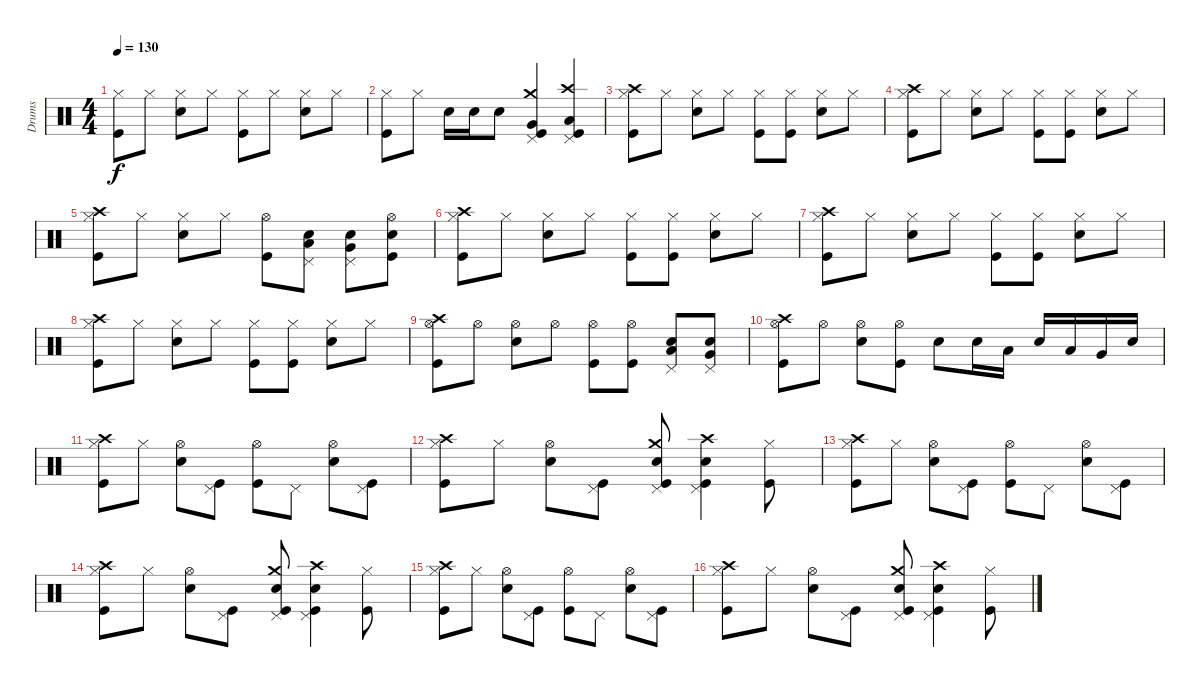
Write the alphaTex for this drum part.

\track ("Drums" "Drums") {instrument percussion}
\staff {score}
\articulation defaults
\ts (4 4)
\tempo 130
\clef neutral
\ks c
("Hi-Hat (closed)" "Kick (hit)").8{dy f} "Hi-Hat (closed)".8 ("Hi-Hat (closed)" "Electric Snare (hit)").8 "Hi-Hat (closed)".8 ("Hi-Hat (closed)" "Kick (hit)").8 "Hi-Hat (closed)".8 ("Hi-Hat (closed)" "Electric Snare (hit)").8 "Hi-Hat (closed)".8 |
("Hi-Hat (closed)" "Kick (hit)").8 "Hi-Hat (closed)".8 "Electric Snare (hit)".16 "Electric Snare (hit)".16 "Electric Snare (hit)".8 ("Crash medium (hit)" "Pedal Hi-Hat (hit)" "Very Low Tom (hit)" "Kick (hit)").4 ("Crash high (hit)" "Pedal Hi-Hat (hit)" "Low Floor Tom (hit)" "Kick (hit)").4 |
("Crash high (hit)" "Hi-Hat (closed)" "Kick (hit)").8{volume 16} "Hi-Hat (closed)".8 ("Hi-Hat (closed)" "Electric Snare (hit)").8 "Hi-Hat (closed)".8 ("Hi-Hat (closed)" "Kick (hit)").8 ("Hi-Hat (closed)" "Kick (hit)").8 ("Hi-Hat (closed)" "Electric Snare (hit)").8 "Hi-Hat (closed)".8 |
("Crash high (hit)" "Hi-Hat (closed)" "Kick (hit)").8 "Hi-Hat (closed)".8 ("Hi-Hat (closed)" "Electric Snare (hit)").8 "Hi-Hat (closed)".8 ("Hi-Hat (closed)" "Kick (hit)").8 ("Hi-Hat (closed)" "Kick (hit)").8 ("Hi-Hat (closed)" "Electric Snare (hit)").8 "Hi-Hat (closed)".8 |
("Crash high (hit)" "Hi-Hat (closed)" "Kick (hit)").8 "Hi-Hat (closed)".8 ("Hi-Hat (closed)" "Electric Snare (hit)").8 "Hi-Hat (closed)".8 ("Hi-Hat (open)" "Kick (hit)").8 ("Pedal Hi-Hat (hit)" "Electric Snare (hit)" "Low Floor Tom (hit)").8 ("Pedal Hi-Hat (hit)" "Electric Snare (hit)" "Very Low Tom (hit)").8 ("Hi-Hat (open)" "Electric Snare (hit)" "Kick (hit)").8 |
("Crash high (hit)" "Hi-Hat (closed)" "Kick (hit)").8 "Hi-Hat (closed)".8 ("Hi-Hat (closed)" "Electric Snare (hit)").8 "Hi-Hat (closed)".8 ("Hi-Hat (closed)" "Kick (hit)").8 ("Hi-Hat (closed)" "Kick (hit)").8 ("Hi-Hat (closed)" "Electric Snare (hit)").8 "Hi-Hat (closed)".8 |
("Crash high (hit)" "Hi-Hat (closed)" "Kick (hit)").8 "Hi-Hat (closed)".8 ("Hi-Hat (closed)" "Electric Snare (hit)").8 "Hi-Hat (closed)".8 ("Hi-Hat (closed)" "Kick (hit)").8 ("Hi-Hat (closed)" "Kick (hit)").8 ("Hi-Hat (closed)" "Electric Snare (hit)").8 "Hi-Hat (closed)".8 |
("Crash high (hit)" "Hi-Hat (closed)" "Kick (hit)").8 "Hi-Hat (closed)".8 ("Hi-Hat (closed)" "Electric Snare (hit)").8 "Hi-Hat (closed)".8 ("Hi-Hat (closed)" "Kick (hit)").8 ("Hi-Hat (closed)" "Kick (hit)").8 ("Hi-Hat (closed)" "Electric Snare (hit)").8 "Hi-Hat (closed)".8 |
("Crash high (hit)" "Hi-Hat (open)" "Kick (hit)").8 "Hi-Hat (open)".8 ("Hi-Hat (open)" "Electric Snare (hit)").8 "Hi-Hat (open)".8 ("Hi-Hat (open)" "Kick (hit)").8 ("Hi-Hat (open)" "Kick (hit)").8 ("Pedal Hi-Hat (hit)" "Electric Snare (hit)" "Low Floor Tom (hit)").8 ("Pedal Hi-Hat (hit)" "Electric Snare (hit)" "Very Low Tom (hit)").8 |
("Crash high (hit)" "Hi-Hat (open)" "Kick (hit)").8 "Hi-Hat (open)".8 ("Hi-Hat (open)" "Electric Snare (hit)").8 ("Hi-Hat (open)" "Kick (hit)").8 "Electric Snare (hit)".8 "Electric Snare (hit)".16 "Low Floor Tom (hit)".16 "Electric Snare (hit)".16 "Low Floor Tom (hit)".16 "Very Low Tom (hit)".16 "Electric Snare (hit)".16 |
("Crash high (hit)" "Hi-Hat (closed)" "Kick (hit)").8 "Hi-Hat (closed)".8 ("Hi-Hat (open)" "Electric Snare (hit)").8 ("Pedal Hi-Hat (hit)" "Kick (hit)").8 ("Hi-Hat (open)" "Kick (hit)").8 "Pedal Hi-Hat (hit)".8 ("Hi-Hat (open)" "Electric Snare (hit)").8 ("Pedal Hi-Hat (hit)" "Kick (hit)").8 |
("Crash high (hit)" "Hi-Hat (closed)" "Kick (hit)").8 "Hi-Hat (closed)".8 ("Hi-Hat (open)" "Electric Snare (hit)").8 ("Pedal Hi-Hat (hit)" "Kick (hit)").8 ("Crash medium (hit)" "Pedal Hi-Hat (hit)" "Electric Snare (hit)" "Kick (hit)").8 ("Crash high (hit)" "Pedal Hi-Hat (hit)" "Electric Snare (hit)" "Kick (hit)").4 ("Hi-Hat (closed)" "Kick (hit)").8 |
("Crash high (hit)" "Hi-Hat (closed)" "Kick (hit)").8 "Hi-Hat (closed)".8 ("Hi-Hat (open)" "Electric Snare (hit)").8 ("Pedal Hi-Hat (hit)" "Kick (hit)").8 ("Hi-Hat (open)" "Kick (hit)").8 "Pedal Hi-Hat (hit)".8 ("Hi-Hat (open)" "Electric Snare (hit)").8 ("Pedal Hi-Hat (hit)" "Kick (hit)").8 |
("Crash high (hit)" "Hi-Hat (closed)" "Kick (hit)").8 "Hi-Hat (closed)".8 ("Hi-Hat (open)" "Electric Snare (hit)").8 ("Pedal Hi-Hat (hit)" "Kick (hit)").8 ("Crash medium (hit)" "Pedal Hi-Hat (hit)" "Electric Snare (hit)" "Kick (hit)").8 ("Crash high (hit)" "Pedal Hi-Hat (hit)" "Electric Snare (hit)" "Kick (hit)").4 ("Hi-Hat (closed)" "Kick (hit)").8 |
("Crash high (hit)" "Hi-Hat (closed)" "Kick (hit)").8 "Hi-Hat (closed)".8 ("Hi-Hat (open)" "Electric Snare (hit)").8 ("Pedal Hi-Hat (hit)" "Kick (hit)").8 ("Hi-Hat (open)" "Kick (hit)").8 "Pedal Hi-Hat (hit)".8 ("Hi-Hat (open)" "Electric Snare (hit)").8 ("Pedal Hi-Hat (hit)" "Kick (hit)").8 |
("Crash high (hit)" "Hi-Hat (closed)" "Kick (hit)").8 "Hi-Hat (closed)".8 ("Hi-Hat (open)" "Electric Snare (hit)").8 ("Pedal Hi-Hat (hit)" "Kick (hit)").8 ("Crash medium (hit)" "Pedal Hi-Hat (hit)" "Electric Snare (hit)" "Kick (hit)").8 ("Crash high (hit)" "Pedal Hi-Hat (hit)" "Electric Snare (hit)" "Kick (hit)").4 ("Hi-Hat (closed)" "Kick (hit)").8
